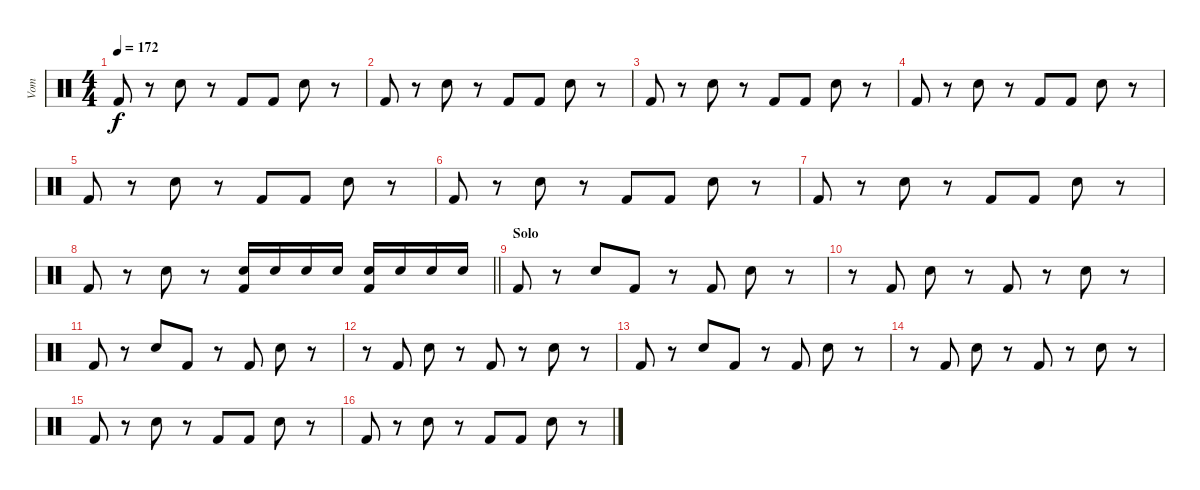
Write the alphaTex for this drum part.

\track ("Vom" "Vom") {instrument percussion}
\staff {score}
\articulation defaults
\ts (4 4)
\tempo 172
\clef neutral
\ks c "Kick (hit) 2".8{dy f}
r.8 "Snare (hit) 2".8 r.8 "Kick (hit) 2".8 "Kick (hit) 2".8 "Snare (hit) 2".8 r.8 |
"Kick (hit) 2".8 r.8 "Snare (hit) 2".8 r.8 "Kick (hit) 2".8 "Kick (hit) 2".8 "Snare (hit) 2".8 r.8 |
"Kick (hit) 2".8 r.8 "Snare (hit) 2".8 r.8 "Kick (hit) 2".8 "Kick (hit) 2".8 "Snare (hit) 2".8 r.8 |
"Kick (hit) 2".8 r.8 "Snare (hit) 2".8 r.8 "Kick (hit) 2".8 "Kick (hit) 2".8 "Snare (hit) 2".8 r.8 |
"Kick (hit) 2".8 r.8 "Snare (hit) 2".8 r.8 "Kick (hit) 2".8 "Kick (hit) 2".8 "Snare (hit) 2".8 r.8 |
"Kick (hit) 2".8 r.8 "Snare (hit) 2".8 r.8 "Kick (hit) 2".8 "Kick (hit) 2".8 "Snare (hit) 2".8 r.8 |
"Kick (hit) 2".8 r.8 "Snare (hit) 2".8 r.8 "Kick (hit) 2".8 "Kick (hit) 2".8 "Snare (hit) 2".8 r.8 |
\barLineRight lightlight "Kick (hit) 2".8
r.8 "Snare (hit) 2".8 r.8 ("Snare (hit) 2" "Kick (hit) 2").16 "Snare (hit) 2".16 "Snare (hit) 2".16 "Snare (hit) 2".16 ("Snare (hit) 2" "Kick (hit) 2").16 "Snare (hit) 2".16 "Snare (hit) 2".16 "Snare (hit) 2".16 |
\section ("" "Solo")
"Kick (hit) 2".8 r.8 "Snare (hit) 2".8 "Kick (hit) 2".8 r.8 "Kick (hit) 2".8 "Snare (hit) 2".8 r.8 |
r.8 "Kick (hit) 2".8 "Snare (hit) 2".8 r.8 "Kick (hit) 2".8 r.8 "Snare (hit) 2".8 r.8 |
"Kick (hit) 2".8 r.8 "Snare (hit) 2".8 "Kick (hit) 2".8 r.8 "Kick (hit) 2".8 "Snare (hit) 2".8 r.8 |
r.8 "Kick (hit) 2".8 "Snare (hit) 2".8 r.8 "Kick (hit) 2".8 r.8 "Snare (hit) 2".8 r.8 |
"Kick (hit) 2".8 r.8 "Snare (hit) 2".8 "Kick (hit) 2".8 r.8 "Kick (hit) 2".8 "Snare (hit) 2".8 r.8 |
r.8 "Kick (hit) 2".8 "Snare (hit) 2".8 r.8 "Kick (hit) 2".8 r.8 "Snare (hit) 2".8 r.8 |
"Kick (hit) 2".8 r.8 "Snare (hit) 2".8 r.8 "Kick (hit) 2".8 "Kick (hit) 2".8 "Snare (hit) 2".8 r.8 |
"Kick (hit) 2".8 r.8 "Snare (hit) 2".8 r.8 "Kick (hit) 2".8 "Kick (hit) 2".8 "Snare (hit) 2".8 r.8
